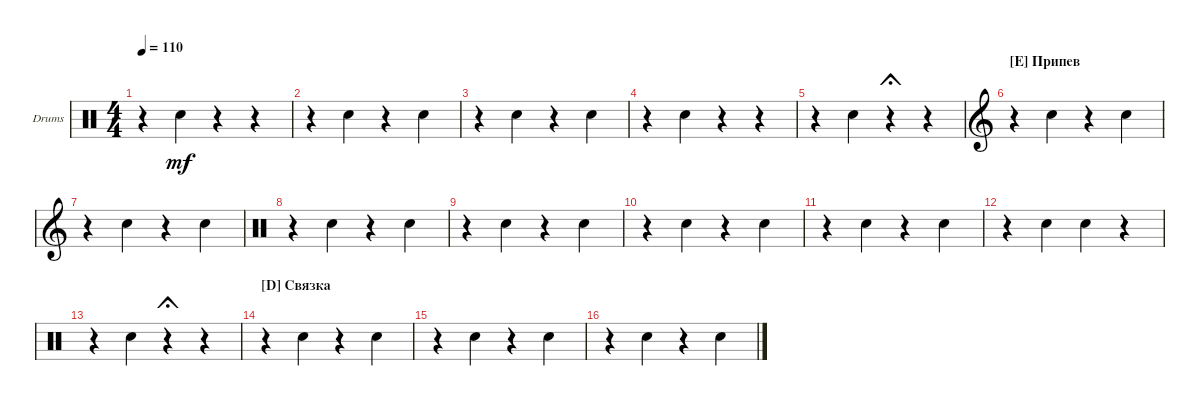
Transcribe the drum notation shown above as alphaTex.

\defaultSystemsLayout 4
\bracketExtendMode groupsimilarinstruments
\firstSystemTrackNameOrientation horizontal
\otherSystemsTrackNameOrientation horizontal
\track ("Drumkit" "Drums") {instrument percussion}
\staff {score}
\articulation defaults
\ts (4 4)
\tempo 110
\clef neutral
\ks c
r.4{dy mf} "Snare (hit) 2".4 r.4 r.4 |
r.4 "Snare (hit) 2".4 r.4 "Snare (hit) 2".4 |
r.4 "Snare (hit) 2".4 r.4 "Snare (hit) 2".4 |
r.4 "Snare (hit) 2".4 r.4 r.4 |
r.4 "Snare (hit) 2".4 r.4{fermata (short 0)} r.4 |
\section ("E" "Припев")
\clef g2
r.4 "Snare (hit) 2".4 r.4 "Snare (hit) 2".4 |
r.4 "Snare (hit) 2".4 r.4 "Snare (hit) 2".4 |
\clef neutral
r.4 "Snare (hit) 2".4 r.4 "Snare (hit) 2".4 |
r.4 "Snare (hit) 2".4 r.4 "Snare (hit) 2".4 |
r.4 "Snare (hit) 2".4 r.4 "Snare (hit) 2".4 |
r.4 "Snare (hit) 2".4 r.4 "Snare (hit) 2".4 |
r.4 "Snare (hit) 2".4 "Snare (hit) 2".4 r.4 |
r.4 "Snare (hit) 2".4 r.4{fermata (short 0)} r.4 |
\section ("D" "Связка")
r.4 "Snare (hit) 2".4 r.4 "Snare (hit) 2".4 |
r.4 "Snare (hit) 2".4 r.4 "Snare (hit) 2".4 |
r.4 "Snare (hit) 2".4 r.4 "Snare (hit) 2".4
